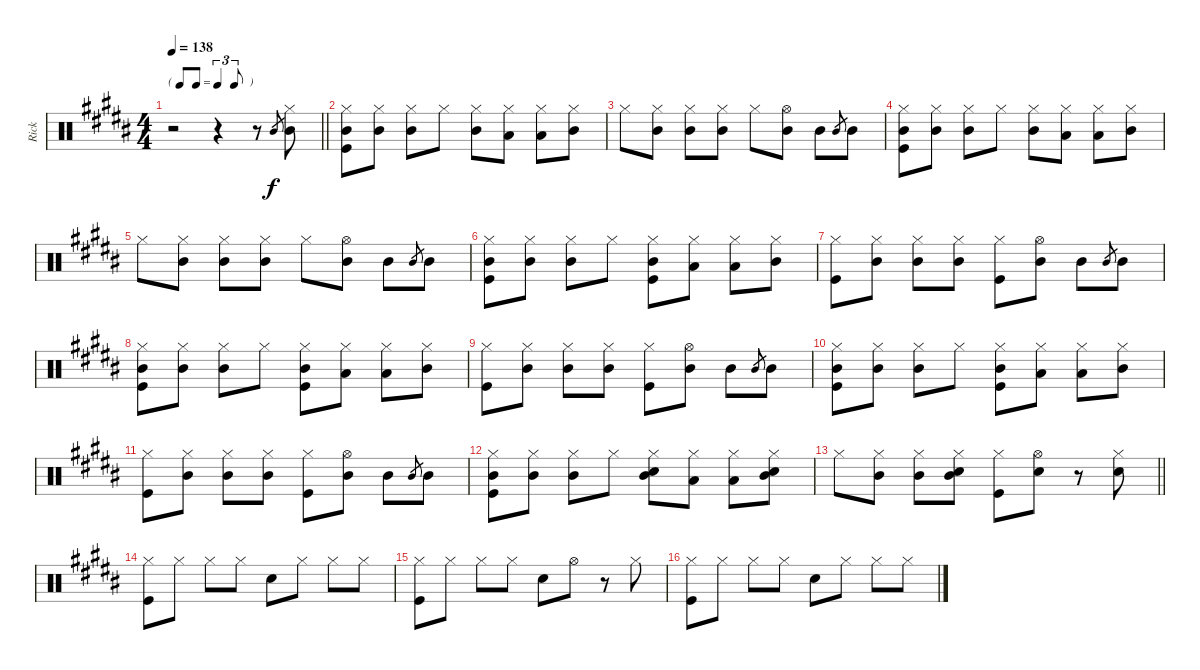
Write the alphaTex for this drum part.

\track ("Rick" "Rick") {instrument percussion}
\staff {score}
\articulation defaults
\ts (4 4)
\tf triplet8th
\tempo 138
\clef neutral
\barLineRight lightlight
\ks b
r.2{dy f} r.4 r.8 "Mid Tom (hit)".8{gr} ("Hi-Hat (closed)" "Mid Tom (hit)").8 |
("Hi-Hat (closed)" "Mid Tom (hit)" "Kick (hit)").8 ("Hi-Hat (closed)" "Mid Tom (hit)").8 ("Hi-Hat (closed)" "Mid Tom (hit)").8 "Hi-Hat (closed)".8 ("Hi-Hat (closed)" "Mid Tom (hit)").8 ("Hi-Hat (closed)" "Low Tom (hit)").8 ("Hi-Hat (closed)" "Low Tom (hit)").8 ("Hi-Hat (closed)" "Mid Tom (hit)").8 |
"Hi-Hat (closed)".8 ("Hi-Hat (closed)" "Mid Tom (hit)").8 ("Hi-Hat (closed)" "Mid Tom (hit)").8 ("Hi-Hat (closed)" "Mid Tom (hit)").8 "Hi-Hat (closed)".8 ("Hi-Hat (open)" "Mid Tom (hit)").8 "Mid Tom (hit)".8 "Mid Tom (hit)".8{gr} "Mid Tom (hit)".8 |
("Hi-Hat (closed)" "Mid Tom (hit)" "Kick (hit)").8 ("Hi-Hat (closed)" "Mid Tom (hit)").8 ("Hi-Hat (closed)" "Mid Tom (hit)").8 "Hi-Hat (closed)".8 ("Hi-Hat (closed)" "Mid Tom (hit)").8 ("Hi-Hat (closed)" "Low Tom (hit)").8 ("Hi-Hat (closed)" "Low Tom (hit)").8 ("Hi-Hat (closed)" "Mid Tom (hit)").8 |
"Hi-Hat (closed)".8 ("Hi-Hat (closed)" "Mid Tom (hit)").8 ("Hi-Hat (closed)" "Mid Tom (hit)").8 ("Hi-Hat (closed)" "Mid Tom (hit)").8 "Hi-Hat (closed)".8 ("Hi-Hat (open)" "Mid Tom (hit)").8 "Mid Tom (hit)".8 "Mid Tom (hit)".8{gr} "Mid Tom (hit)".8 |
("Hi-Hat (closed)" "Mid Tom (hit)" "Kick (hit)").8 ("Hi-Hat (closed)" "Mid Tom (hit)").8 ("Hi-Hat (closed)" "Mid Tom (hit)").8 "Hi-Hat (closed)".8 ("Hi-Hat (closed)" "Mid Tom (hit)" "Kick (hit)").8 ("Hi-Hat (closed)" "Low Tom (hit)").8 ("Hi-Hat (closed)" "Low Tom (hit)").8 ("Hi-Hat (closed)" "Mid Tom (hit)").8 |
("Hi-Hat (closed)" "Kick (hit)").8 ("Hi-Hat (closed)" "Mid Tom (hit)").8 ("Hi-Hat (closed)" "Mid Tom (hit)").8 ("Hi-Hat (closed)" "Mid Tom (hit)").8 ("Hi-Hat (closed)" "Kick (hit)").8 ("Hi-Hat (open)" "Mid Tom (hit)").8 "Mid Tom (hit)".8 "Mid Tom (hit)".8{gr} "Mid Tom (hit)".8 |
("Hi-Hat (closed)" "Mid Tom (hit)" "Kick (hit)").8 ("Hi-Hat (closed)" "Mid Tom (hit)").8 ("Hi-Hat (closed)" "Mid Tom (hit)").8 "Hi-Hat (closed)".8 ("Hi-Hat (closed)" "Mid Tom (hit)" "Kick (hit)").8 ("Hi-Hat (closed)" "Low Tom (hit)").8 ("Hi-Hat (closed)" "Low Tom (hit)").8 ("Hi-Hat (closed)" "Mid Tom (hit)").8 |
("Hi-Hat (closed)" "Kick (hit)").8 ("Hi-Hat (closed)" "Mid Tom (hit)").8 ("Hi-Hat (closed)" "Mid Tom (hit)").8 ("Hi-Hat (closed)" "Mid Tom (hit)").8 ("Hi-Hat (closed)" "Kick (hit)").8 ("Hi-Hat (open)" "Mid Tom (hit)").8 "Mid Tom (hit)".8 "Mid Tom (hit)".8{gr} "Mid Tom (hit)".8 |
("Hi-Hat (closed)" "Mid Tom (hit)" "Kick (hit)").8 ("Hi-Hat (closed)" "Mid Tom (hit)").8 ("Hi-Hat (closed)" "Mid Tom (hit)").8 "Hi-Hat (closed)".8 ("Hi-Hat (closed)" "Mid Tom (hit)" "Kick (hit)").8 ("Hi-Hat (closed)" "Low Tom (hit)").8 ("Hi-Hat (closed)" "Low Tom (hit)").8 ("Hi-Hat (closed)" "Mid Tom (hit)").8 |
("Hi-Hat (closed)" "Kick (hit)").8 ("Hi-Hat (closed)" "Mid Tom (hit)").8 ("Hi-Hat (closed)" "Mid Tom (hit)").8 ("Hi-Hat (closed)" "Mid Tom (hit)").8 ("Hi-Hat (closed)" "Kick (hit)").8 ("Hi-Hat (open)" "Mid Tom (hit)").8 "Mid Tom (hit)".8 "Mid Tom (hit)".8{gr} "Mid Tom (hit)".8 |
("Hi-Hat (closed)" "Mid Tom (hit)" "Kick (hit)").8 ("Hi-Hat (closed)" "Mid Tom (hit)").8 ("Hi-Hat (closed)" "Mid Tom (hit)").8 "Hi-Hat (closed)".8 ("Hi-Hat (closed)" "Mid Tom (hit)" "Snare (hit) 2").8 ("Hi-Hat (closed)" "Low Tom (hit)").8 ("Hi-Hat (closed)" "Low Tom (hit)").8 ("Hi-Hat (closed)" "Mid Tom (hit)" "Snare (hit) 2").8 |
\barLineRight lightlight "Hi-Hat (closed)".8
("Hi-Hat (closed)" "Mid Tom (hit)").8 ("Hi-Hat (closed)" "Mid Tom (hit)").8 ("Hi-Hat (closed)" "Mid Tom (hit)" "Snare (hit) 2").8 ("Hi-Hat (closed)" "Kick (hit)").8 ("Hi-Hat (open)" "Snare (hit) 2").8 r.8 ("Hi-Hat (closed)" "Snare (hit) 2").8 |
("Hi-Hat (closed)" "Kick (hit)").8 "Hi-Hat (closed)".8 "Hi-Hat (closed)".8 "Hi-Hat (closed)".8 "Snare (hit) 2".8 "Hi-Hat (closed)".8 "Hi-Hat (closed)".8 "Hi-Hat (closed)".8 |
("Hi-Hat (closed)" "Kick (hit)").8 "Hi-Hat (closed)".8 "Hi-Hat (closed)".8 "Hi-Hat (closed)".8 "Snare (hit) 2".8 "Hi-Hat (open)".8 r.8 "Hi-Hat (closed)".8 |
("Hi-Hat (closed)" "Kick (hit)").8 "Hi-Hat (closed)".8 "Hi-Hat (closed)".8 "Hi-Hat (closed)".8 "Snare (hit) 2".8 "Hi-Hat (closed)".8 "Hi-Hat (closed)".8 "Hi-Hat (closed)".8
